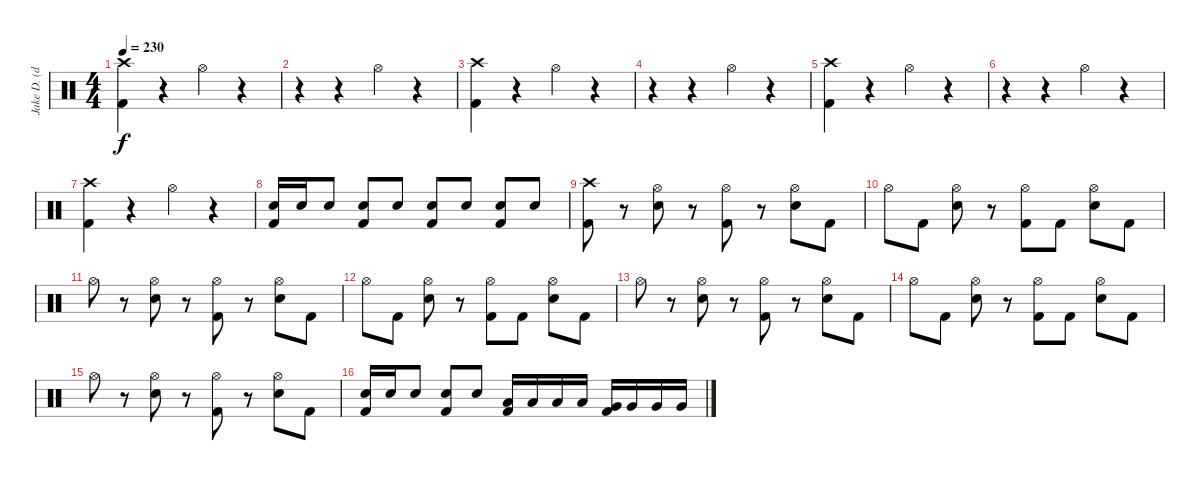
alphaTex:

\track ("Jake D. (drums)" "Jake D. (d") {instrument percussion}
\staff {score}
\articulation defaults
\ts (4 4)
\tempo 230
\clef neutral
\ks c
("Crash high (hit)" "Kick (hit) 2").4{dy f} r.4 "Hi-Hat (open)".4 r.4 |
r.4 r.4 "Hi-Hat (open)".4 r.4 |
("Crash high (hit)" "Kick (hit) 2").4 r.4 "Hi-Hat (open)".4 r.4 |
r.4 r.4 "Hi-Hat (open)".4 r.4 |
("Crash high (hit)" "Kick (hit) 2").4 r.4 "Hi-Hat (open)".4 r.4 |
r.4 r.4 "Hi-Hat (open)".4 r.4 |
("Crash high (hit)" "Kick (hit) 2").4 r.4 "Hi-Hat (open)".4 r.4 |
("Electric Snare (hit)" "Kick (hit) 2").16 "Electric Snare (hit)".16 "Electric Snare (hit)".8 ("Electric Snare (hit)" "Kick (hit) 2").8 "Electric Snare (hit)".8 ("Electric Snare (hit)" "Kick (hit) 2").8 "Electric Snare (hit)".8 ("Electric Snare (hit)" "Kick (hit) 2").8 "Electric Snare (hit)".8 |
("Crash high (hit)" "Kick (hit) 2").8 r.8 ("Hi-Hat (open)" "Electric Snare (hit)").8 r.8 ("Hi-Hat (open)" "Kick (hit) 2").8 r.8 ("Hi-Hat (open)" "Electric Snare (hit)").8 "Kick (hit) 2".8 |
"Hi-Hat (open)".8 "Kick (hit) 2".8 ("Hi-Hat (open)" "Electric Snare (hit)").8 r.8 ("Hi-Hat (open)" "Kick (hit) 2").8 "Kick (hit) 2".8 ("Hi-Hat (open)" "Electric Snare (hit)").8 "Kick (hit) 2".8 |
"Hi-Hat (open)".8 r.8 ("Hi-Hat (open)" "Electric Snare (hit)").8 r.8 ("Hi-Hat (open)" "Kick (hit) 2").8 r.8 ("Hi-Hat (open)" "Electric Snare (hit)").8 "Kick (hit) 2".8 |
"Hi-Hat (open)".8 "Kick (hit) 2".8 ("Hi-Hat (open)" "Electric Snare (hit)").8 r.8 ("Hi-Hat (open)" "Kick (hit) 2").8 "Kick (hit) 2".8 ("Hi-Hat (open)" "Electric Snare (hit)").8 "Kick (hit) 2".8 |
"Hi-Hat (open)".8 r.8 ("Hi-Hat (open)" "Electric Snare (hit)").8 r.8 ("Hi-Hat (open)" "Kick (hit) 2").8 r.8 ("Hi-Hat (open)" "Electric Snare (hit)").8 "Kick (hit) 2".8 |
"Hi-Hat (open)".8 "Kick (hit) 2".8 ("Hi-Hat (open)" "Electric Snare (hit)").8 r.8 ("Hi-Hat (open)" "Kick (hit) 2").8 "Kick (hit) 2".8 ("Hi-Hat (open)" "Electric Snare (hit)").8 "Kick (hit) 2".8 |
"Hi-Hat (open)".8 r.8 ("Hi-Hat (open)" "Electric Snare (hit)").8 r.8 ("Hi-Hat (open)" "Kick (hit) 2").8 r.8 ("Hi-Hat (open)" "Electric Snare (hit)").8 "Kick (hit) 2".8 |
("Electric Snare (hit)" "Kick (hit) 2").16 "Electric Snare (hit)".16 "Electric Snare (hit)".8 ("Electric Snare (hit)" "Kick (hit) 2").8 "Electric Snare (hit)".8 ("Low Tom (hit)" "Kick (hit) 2").16 "Low Tom (hit)".16 "Low Tom (hit)".16 "Low Tom (hit)".16 ("Very Low Tom (hit)" "Kick (hit) 2").16 "Very Low Tom (hit)".16 "Very Low Tom (hit)".16 "Very Low Tom (hit)".16
